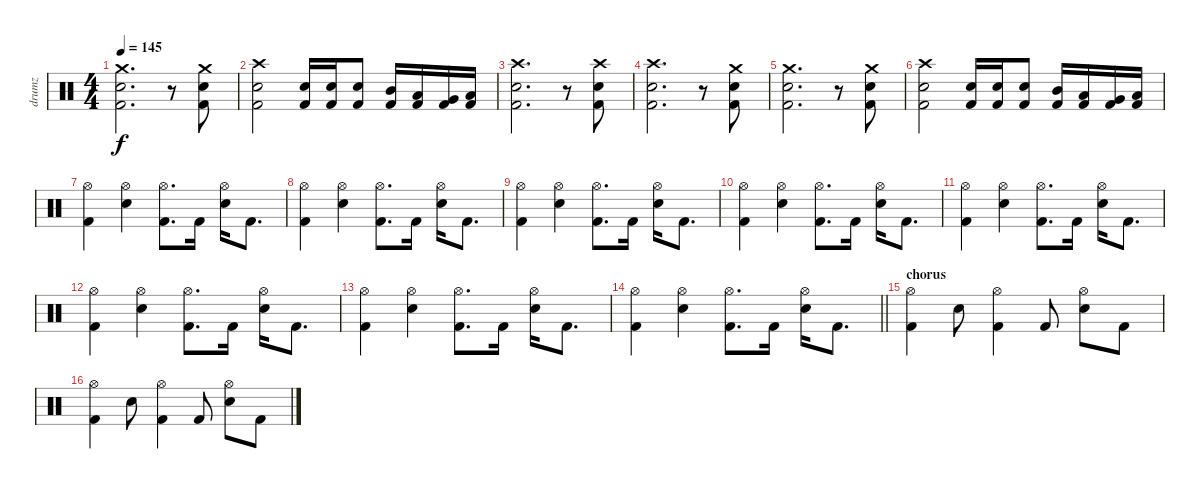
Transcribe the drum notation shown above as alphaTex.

\track ("drumz" "drumz") {instrument percussion}
\staff {score}
\articulation defaults
\ts (4 4)
\tempo 145
\clef neutral
\ks c
("Crash medium (hit)" "Electric Snare (hit)" "Kick (hit) 2").2{d dy f} r.8 ("Crash medium (hit)" "Electric Snare (hit)" "Kick (hit) 2").8 |
("Crash high (hit)" "Electric Snare (hit)" "Kick (hit) 2").2 ("Electric Snare (hit)" "Kick (hit) 2").16 ("Electric Snare (hit)" "Kick (hit) 2").16 ("Electric Snare (hit)" "Kick (hit) 2").8 ("Mid Tom (hit)" "Kick (hit) 2").16 ("Low Tom (hit)" "Kick (hit) 2").16 ("Very Low Tom (hit)" "Kick (hit) 2").16 ("Low Floor Tom (hit)" "Kick (hit) 2").16 |
("Crash high (hit)" "Electric Snare (hit)" "Kick (hit) 2").2{d} r.8 ("Crash high (hit)" "Electric Snare (hit)" "Kick (hit) 2").8 |
("Crash high (hit)" "Electric Snare (hit)" "Kick (hit) 2").2{d} r.8 ("Crash medium (hit)" "Electric Snare (hit)" "Kick (hit) 2").8 |
("Crash medium (hit)" "Electric Snare (hit)" "Kick (hit) 2").2{d} r.8 ("Crash medium (hit)" "Electric Snare (hit)" "Kick (hit) 2").8 |
("Crash high (hit)" "Electric Snare (hit)" "Kick (hit) 2").2 ("Electric Snare (hit)" "Kick (hit) 2").16 ("Electric Snare (hit)" "Kick (hit) 2").16 ("Electric Snare (hit)" "Kick (hit) 2").8 ("Mid Tom (hit)" "Kick (hit) 2").16 ("Low Tom (hit)" "Kick (hit) 2").16 ("Very Low Tom (hit)" "Kick (hit) 2").16 ("Low Floor Tom (hit)" "Kick (hit) 2").16 |
("Hi-Hat (open)" "Kick (hit) 2").4 ("Hi-Hat (open)" "Electric Snare (hit)").4 ("Hi-Hat (open)" "Kick (hit) 2").8{d} "Kick (hit) 2".16 ("Hi-Hat (open)" "Electric Snare (hit)").16 "Kick (hit) 2".8{d} |
("Hi-Hat (open)" "Kick (hit) 2").4 ("Hi-Hat (open)" "Electric Snare (hit)").4 ("Hi-Hat (open)" "Kick (hit) 2").8{d} "Kick (hit) 2".16 ("Hi-Hat (open)" "Electric Snare (hit)").16 "Kick (hit) 2".8{d} |
("Hi-Hat (open)" "Kick (hit) 2").4 ("Hi-Hat (open)" "Electric Snare (hit)").4 ("Hi-Hat (open)" "Kick (hit) 2").8{d} "Kick (hit) 2".16 ("Hi-Hat (open)" "Electric Snare (hit)").16 "Kick (hit) 2".8{d} |
("Hi-Hat (open)" "Kick (hit) 2").4 ("Hi-Hat (open)" "Electric Snare (hit)").4 ("Hi-Hat (open)" "Kick (hit) 2").8{d} "Kick (hit) 2".16 ("Hi-Hat (open)" "Electric Snare (hit)").16 "Kick (hit) 2".8{d} |
("Hi-Hat (open)" "Kick (hit) 2").4 ("Hi-Hat (open)" "Electric Snare (hit)").4 ("Hi-Hat (open)" "Kick (hit) 2").8{d} "Kick (hit) 2".16 ("Hi-Hat (open)" "Electric Snare (hit)").16 "Kick (hit) 2".8{d} |
("Hi-Hat (open)" "Kick (hit) 2").4 ("Hi-Hat (open)" "Electric Snare (hit)").4 ("Hi-Hat (open)" "Kick (hit) 2").8{d} "Kick (hit) 2".16 ("Hi-Hat (open)" "Electric Snare (hit)").16 "Kick (hit) 2".8{d} |
("Hi-Hat (open)" "Kick (hit) 2").4 ("Hi-Hat (open)" "Electric Snare (hit)").4 ("Hi-Hat (open)" "Kick (hit) 2").8{d} "Kick (hit) 2".16 ("Hi-Hat (open)" "Electric Snare (hit)").16 "Kick (hit) 2".8{d} |
\barLineRight lightlight
("Hi-Hat (open)" "Kick (hit) 2").4 ("Hi-Hat (open)" "Electric Snare (hit)").4 ("Hi-Hat (open)" "Kick (hit) 2").8{d} "Kick (hit) 2".16 ("Hi-Hat (open)" "Electric Snare (hit)").16 "Kick (hit) 2".8{d} |
\section ("" "chorus")
("Hi-Hat (open)" "Kick (hit) 2").4 "Electric Snare (hit)".8 ("Hi-Hat (open)" "Kick (hit) 2").4 "Kick (hit) 2".8 ("Hi-Hat (open)" "Electric Snare (hit)").8 "Kick (hit) 2".8 |
("Hi-Hat (open)" "Kick (hit) 2").4 "Electric Snare (hit)".8 ("Hi-Hat (open)" "Kick (hit) 2").4 "Kick (hit) 2".8 ("Hi-Hat (open)" "Electric Snare (hit)").8 "Kick (hit) 2".8
